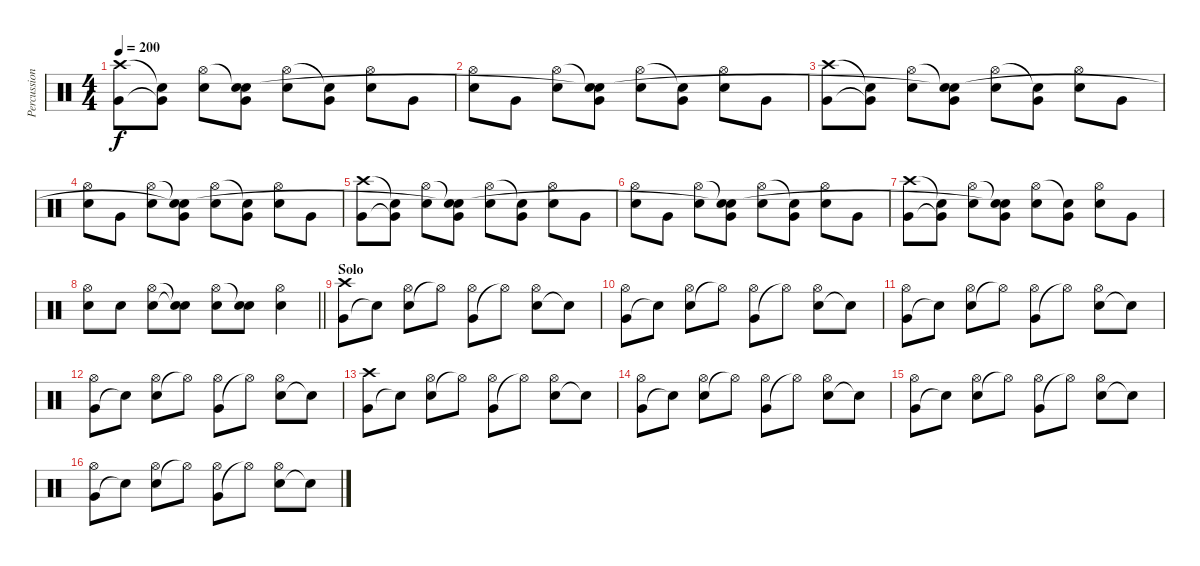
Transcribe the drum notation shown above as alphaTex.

\track ("Percussion" "Percussion") {instrument percussion}
\staff {score}
\articulation defaults
\ts (4 4)
\tempo 200
\clef neutral
\ks c
("Very Low Tom (hit)" "Crash high (hit)").8{dy f} ("Very Low Tom (hit)"{t} "Snare (hit)"{t}).8 ("Snare (hit) 2" "Hi-Hat (open)").8 ("Very Low Tom (hit)" "Snare (hit)"{t} "Snare (hit)"{t}).8 ("Snare (hit) 2" "Hi-Hat (open)").8 ("Very Low Tom (hit)" "Snare (hit)"{t}).8 ("Snare (hit) 2" "Hi-Hat (open)").8 "Very Low Tom (hit)".8 |
("Snare (hit) 2" "Hi-Hat (open)").8 "Very Low Tom (hit)".8 ("Snare (hit) 2" "Hi-Hat (open)").8 ("Very Low Tom (hit)" "Snare (hit)"{t} "Snare (hit)"{t}).8 ("Snare (hit) 2" "Hi-Hat (open)").8 ("Very Low Tom (hit)" "Snare (hit)"{t}).8 ("Snare (hit) 2" "Hi-Hat (open)").8 "Very Low Tom (hit)".8 |
("Very Low Tom (hit)" "Crash high (hit)").8 ("Very Low Tom (hit)"{t} "Snare (hit)"{t}).8 ("Snare (hit) 2" "Hi-Hat (open)").8 ("Very Low Tom (hit)" "Snare (hit)"{t} "Snare (hit)"{t}).8 ("Snare (hit) 2" "Hi-Hat (open)").8 ("Very Low Tom (hit)" "Snare (hit)"{t}).8 ("Snare (hit) 2" "Hi-Hat (open)").8 "Very Low Tom (hit)".8 |
("Snare (hit) 2" "Hi-Hat (open)").8 "Very Low Tom (hit)".8 ("Snare (hit) 2" "Hi-Hat (open)").8 ("Very Low Tom (hit)" "Snare (hit)"{t} "Snare (hit)"{t}).8 ("Snare (hit) 2" "Hi-Hat (open)").8 ("Very Low Tom (hit)" "Snare (hit)"{t}).8 ("Snare (hit) 2" "Hi-Hat (open)").8 "Very Low Tom (hit)".8 |
("Very Low Tom (hit)" "Crash high (hit)").8 ("Very Low Tom (hit)"{t} "Snare (hit)"{t}).8 ("Snare (hit) 2" "Hi-Hat (open)").8 ("Very Low Tom (hit)" "Snare (hit)"{t} "Snare (hit)"{t}).8 ("Snare (hit) 2" "Hi-Hat (open)").8 ("Very Low Tom (hit)" "Snare (hit)"{t}).8 ("Snare (hit) 2" "Hi-Hat (open)").8 "Very Low Tom (hit)".8 |
("Snare (hit) 2" "Hi-Hat (open)").8 "Very Low Tom (hit)".8 ("Snare (hit) 2" "Hi-Hat (open)").8 ("Very Low Tom (hit)" "Snare (hit)"{t} "Snare (hit)"{t}).8 ("Snare (hit) 2" "Hi-Hat (open)").8 ("Very Low Tom (hit)" "Snare (hit)"{t}).8 ("Snare (hit) 2" "Hi-Hat (open)").8 "Very Low Tom (hit)".8 |
("Very Low Tom (hit)" "Crash high (hit)").8 ("Very Low Tom (hit)"{t} "Snare (hit)"{t}).8 ("Snare (hit) 2" "Hi-Hat (open)").8 ("Very Low Tom (hit)" "Snare (hit)"{t} "Snare (hit)"{t}).8 ("Snare (hit) 2" "Hi-Hat (open)").8 ("Very Low Tom (hit)" "Snare (hit)"{t}).8 ("Snare (hit) 2" "Hi-Hat (open)").8 "Very Low Tom (hit)".8 |
\barLineRight lightlight
("Snare (hit) 2" "Hi-Hat (open)").8 "Snare (hit) 2".8 ("Snare (hit) 2" "Hi-Hat (open)").8 ("Snare (hit)"{t} "Snare (hit)"{t}).8 ("Snare (hit) 2" "Hi-Hat (open)").8 ("Snare (hit) 2" "Snare (hit)"{t}).8 ("Snare (hit) 2" "Hi-Hat (open)").4 |
\section ("" "Solo")
("Very Low Tom (hit)" "Crash high (hit)").8 "Snare (hit)"{t}.8 ("Snare (hit) 2" "Hi-Hat (open)").8 "Hi-Hat (open)"{t}.8 ("Very Low Tom (hit)" "Hi-Hat (open)").8 "Hi-Hat (open)"{t}.8 ("Snare (hit) 2" "Hi-Hat (open)").8 "Snare (hit)"{t}.8 |
("Very Low Tom (hit)" "Hi-Hat (open)").8 "Snare (hit)"{t}.8 ("Snare (hit) 2" "Hi-Hat (open)").8 "Hi-Hat (open)"{t}.8 ("Very Low Tom (hit)" "Hi-Hat (open)").8 "Hi-Hat (open)"{t}.8 ("Snare (hit) 2" "Hi-Hat (open)").8 "Snare (hit)"{t}.8 |
("Very Low Tom (hit)" "Hi-Hat (open)").8 "Snare (hit)"{t}.8 ("Snare (hit) 2" "Hi-Hat (open)").8 "Hi-Hat (open)"{t}.8 ("Very Low Tom (hit)" "Hi-Hat (open)").8 "Hi-Hat (open)"{t}.8 ("Snare (hit) 2" "Hi-Hat (open)").8 "Snare (hit)"{t}.8 |
("Very Low Tom (hit)" "Hi-Hat (open)").8 "Snare (hit)"{t}.8 ("Snare (hit) 2" "Hi-Hat (open)").8 "Hi-Hat (open)"{t}.8 ("Very Low Tom (hit)" "Hi-Hat (open)").8 "Hi-Hat (open)"{t}.8 ("Snare (hit) 2" "Hi-Hat (open)").8 "Snare (hit)"{t}.8 |
("Very Low Tom (hit)" "Crash high (hit)").8 "Snare (hit)"{t}.8 ("Snare (hit) 2" "Hi-Hat (open)").8 "Hi-Hat (open)"{t}.8 ("Very Low Tom (hit)" "Hi-Hat (open)").8 "Hi-Hat (open)"{t}.8 ("Snare (hit) 2" "Hi-Hat (open)").8 "Snare (hit)"{t}.8 |
("Very Low Tom (hit)" "Hi-Hat (open)").8 "Snare (hit)"{t}.8 ("Snare (hit) 2" "Hi-Hat (open)").8 "Hi-Hat (open)"{t}.8 ("Very Low Tom (hit)" "Hi-Hat (open)").8 "Hi-Hat (open)"{t}.8 ("Snare (hit) 2" "Hi-Hat (open)").8 "Snare (hit)"{t}.8 |
("Very Low Tom (hit)" "Hi-Hat (open)").8 "Snare (hit)"{t}.8 ("Snare (hit) 2" "Hi-Hat (open)").8 "Hi-Hat (open)"{t}.8 ("Very Low Tom (hit)" "Hi-Hat (open)").8 "Hi-Hat (open)"{t}.8 ("Snare (hit) 2" "Hi-Hat (open)").8 "Snare (hit)"{t}.8 |
("Very Low Tom (hit)" "Hi-Hat (open)").8 "Snare (hit)"{t}.8 ("Snare (hit) 2" "Hi-Hat (open)").8 "Hi-Hat (open)"{t}.8 ("Very Low Tom (hit)" "Hi-Hat (open)").8 "Hi-Hat (open)"{t}.8 ("Snare (hit) 2" "Hi-Hat (open)").8 "Snare (hit)"{t}.8
